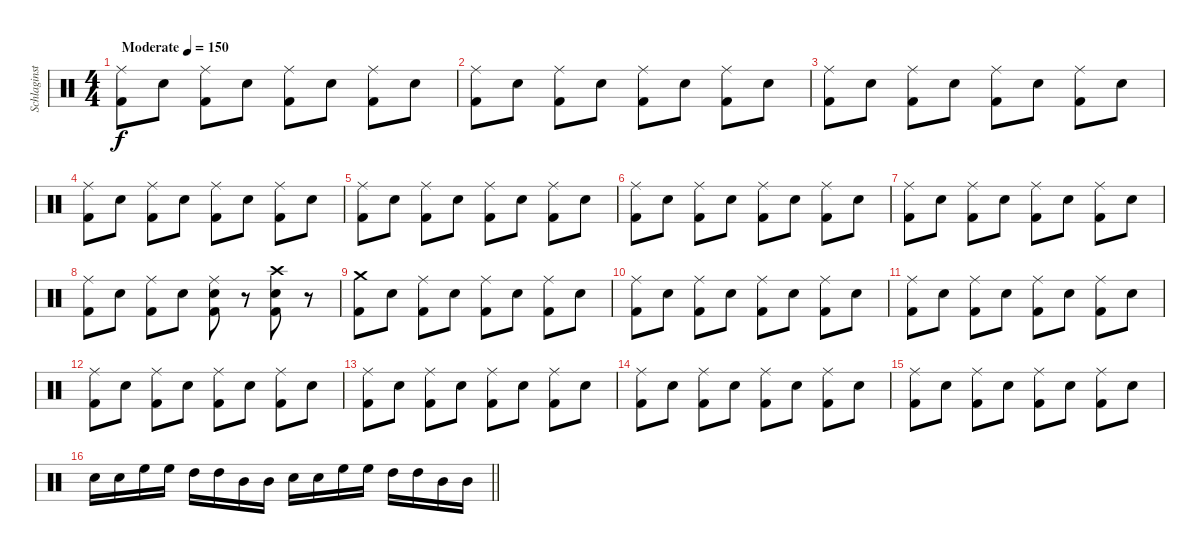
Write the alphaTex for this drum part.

\track ("Schlaginstrumente - Auswahl" "Schlaginst") {instrument percussion}
\staff {score}
\articulation defaults
\ts (4 4)
\tempo (150 "Moderate")
\clef neutral
\ks c
("Ride (middle)" "Kick (hit) 2").8{dy f} "Electric Snare (hit)".8 ("Ride (middle)" "Kick (hit) 2").8 "Electric Snare (hit)".8 ("Ride (middle)" "Kick (hit) 2").8 "Electric Snare (hit)".8 ("Ride (middle)" "Kick (hit) 2").8 "Electric Snare (hit)".8 |
("Ride (middle)" "Kick (hit) 2").8 "Electric Snare (hit)".8 ("Ride (middle)" "Kick (hit) 2").8 "Electric Snare (hit)".8 ("Ride (middle)" "Kick (hit) 2").8 "Electric Snare (hit)".8 ("Ride (middle)" "Kick (hit) 2").8 "Electric Snare (hit)".8 |
("Ride (middle)" "Kick (hit) 2").8 "Electric Snare (hit)".8 ("Ride (middle)" "Kick (hit) 2").8 "Electric Snare (hit)".8 ("Ride (middle)" "Kick (hit) 2").8 "Electric Snare (hit)".8 ("Ride (middle)" "Kick (hit) 2").8 "Electric Snare (hit)".8 |
("Ride (middle)" "Kick (hit) 2").8 "Electric Snare (hit)".8 ("Ride (middle)" "Kick (hit) 2").8 "Electric Snare (hit)".8 ("Ride (middle)" "Kick (hit) 2").8 "Electric Snare (hit)".8 ("Ride (middle)" "Kick (hit) 2").8 "Electric Snare (hit)".8 |
("Ride (middle)" "Kick (hit) 2").8 "Electric Snare (hit)".8 ("Ride (middle)" "Kick (hit) 2").8 "Electric Snare (hit)".8 ("Ride (middle)" "Kick (hit) 2").8 "Electric Snare (hit)".8 ("Ride (middle)" "Kick (hit) 2").8 "Electric Snare (hit)".8 |
("Ride (middle)" "Kick (hit) 2").8 "Electric Snare (hit)".8 ("Ride (middle)" "Kick (hit) 2").8 "Electric Snare (hit)".8 ("Ride (middle)" "Kick (hit) 2").8 "Electric Snare (hit)".8 ("Ride (middle)" "Kick (hit) 2").8 "Electric Snare (hit)".8 |
("Ride (middle)" "Kick (hit) 2").8 "Electric Snare (hit)".8 ("Ride (middle)" "Kick (hit) 2").8 "Electric Snare (hit)".8 ("Ride (middle)" "Kick (hit) 2").8 "Electric Snare (hit)".8 ("Ride (middle)" "Kick (hit) 2").8 "Electric Snare (hit)".8 |
("Ride (middle)" "Kick (hit) 2").8 "Electric Snare (hit)".8 ("Ride (middle)" "Kick (hit) 2").8 "Electric Snare (hit)".8 ("Ride (middle)" "Electric Snare (hit)" "Kick (hit) 2").8 r.8 ("Crash high (hit)" "Electric Snare (hit)" "Kick (hit) 2").8 r.8 |
("Crash medium (hit)" "Kick (hit) 2").8 "Electric Snare (hit)".8 ("Ride (middle)" "Kick (hit) 2").8 "Electric Snare (hit)".8 ("Ride (middle)" "Kick (hit) 2").8 "Electric Snare (hit)".8 ("Ride (middle)" "Kick (hit) 2").8 "Electric Snare (hit)".8 |
("Ride (middle)" "Kick (hit) 2").8 "Electric Snare (hit)".8 ("Ride (middle)" "Kick (hit) 2").8 "Electric Snare (hit)".8 ("Ride (middle)" "Kick (hit) 2").8 "Electric Snare (hit)".8 ("Ride (middle)" "Kick (hit) 2").8 "Electric Snare (hit)".8 |
("Ride (middle)" "Kick (hit) 2").8 "Electric Snare (hit)".8 ("Ride (middle)" "Kick (hit) 2").8 "Electric Snare (hit)".8 ("Ride (middle)" "Kick (hit) 2").8 "Electric Snare (hit)".8 ("Ride (middle)" "Kick (hit) 2").8 "Electric Snare (hit)".8 |
("Ride (middle)" "Kick (hit) 2").8 "Electric Snare (hit)".8 ("Ride (middle)" "Kick (hit) 2").8 "Electric Snare (hit)".8 ("Ride (middle)" "Kick (hit) 2").8 "Electric Snare (hit)".8 ("Ride (middle)" "Kick (hit) 2").8 "Electric Snare (hit)".8 |
("Ride (middle)" "Kick (hit) 2").8 "Electric Snare (hit)".8 ("Ride (middle)" "Kick (hit) 2").8 "Electric Snare (hit)".8 ("Ride (middle)" "Kick (hit) 2").8 "Electric Snare (hit)".8 ("Ride (middle)" "Kick (hit) 2").8 "Electric Snare (hit)".8 |
("Ride (middle)" "Kick (hit) 2").8 "Electric Snare (hit)".8 ("Ride (middle)" "Kick (hit) 2").8 "Electric Snare (hit)".8 ("Ride (middle)" "Kick (hit) 2").8 "Electric Snare (hit)".8 ("Ride (middle)" "Kick (hit) 2").8 "Electric Snare (hit)".8 |
("Ride (middle)" "Kick (hit) 2").8 "Electric Snare (hit)".8 ("Ride (middle)" "Kick (hit) 2").8 "Electric Snare (hit)".8 ("Ride (middle)" "Kick (hit) 2").8 "Electric Snare (hit)".8 ("Ride (middle)" "Kick (hit) 2").8 "Electric Snare (hit)".8 |
\barLineRight lightlight "Snare (hit) 2".16 "Snare (hit) 2".16 "High Floor Tom (hit)".16 "High Floor Tom (hit)".16 "High Tom (hit)".16 "High Tom (hit)".16 "Mid Tom (hit)".16 "Mid Tom (hit)".16 "Snare (hit) 2".16 "Snare (hit) 2".16 "High Floor Tom (hit)".16 "High Floor Tom (hit)".16 "High Tom (hit)".16 "High Tom (hit)".16 "Mid Tom (hit)".16 "Mid Tom (hit)".16
